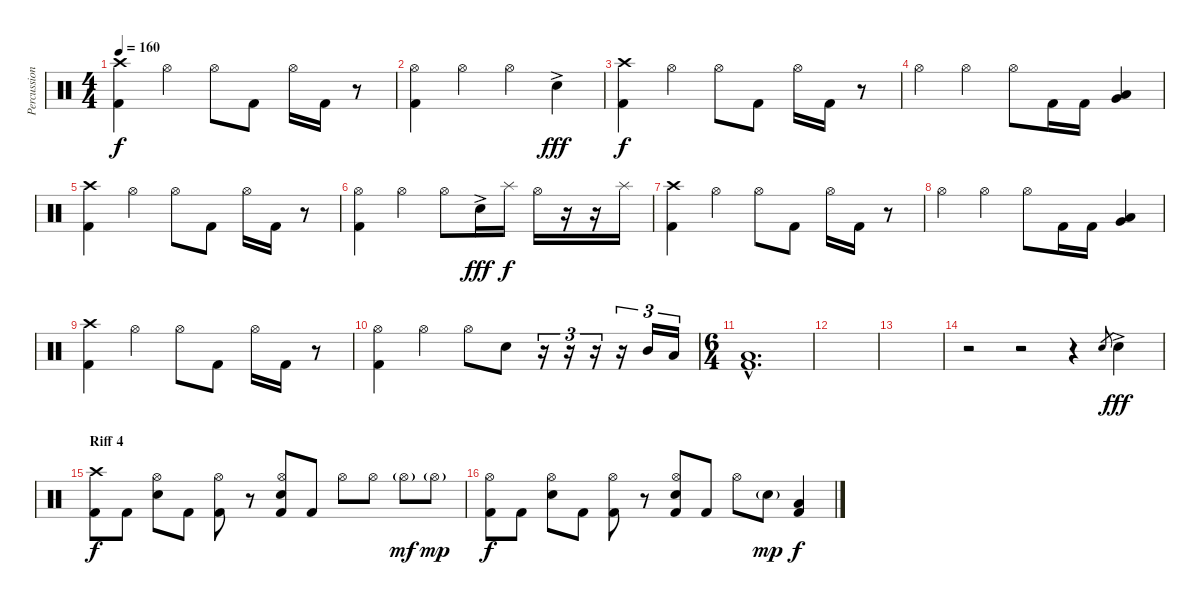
\track ("Percussion" "Percussion") {instrument percussion}
\staff {score}
\articulation defaults
\ts (4 4)
\tempo 160
\clef neutral
\ks c
("Crash high (hit)" "Kick (hit) 2").4{dy f} "Hi-Hat (open)".4 "Hi-Hat (open)".8 "Kick (hit) 2".8 "Hi-Hat (open)".16 "Kick (hit) 2".16 r.8 |
("Hi-Hat (open)" "Kick (hit) 2").4 "Hi-Hat (open)".4 "Hi-Hat (open)".4 "Electric Snare (hit)"{ac}.4{dy fff} |
("Crash high (hit)" "Kick (hit) 2").4{dy f} "Hi-Hat (open)".4 "Hi-Hat (open)".8 "Kick (hit) 2".8 "Hi-Hat (open)".16 "Kick (hit) 2".16 r.8 |
"Hi-Hat (open)".4 "Hi-Hat (open)".4 "Hi-Hat (open)".8 "Kick (hit) 2".16 "Kick (hit) 2".16 ("Very Low Tom (hit)" "Low Floor Tom (hit)").4 |
("Crash high (hit)" "Kick (hit) 2").4 "Hi-Hat (open)".4 "Hi-Hat (open)".8 "Kick (hit) 2".8 "Hi-Hat (open)".16 "Kick (hit) 2".16 r.8 |
("Hi-Hat (open)" "Kick (hit) 2").4 "Hi-Hat (open)".4 "Hi-Hat (open)".8 "Electric Snare (hit)"{ac}.16{dy fff} "Splash (hit)".16{dy f} "Hi-Hat (open)".16 r.16 r.16 "Splash (hit)".16 |
("Crash high (hit)" "Kick (hit) 2").4 "Hi-Hat (open)".4 "Hi-Hat (open)".8 "Kick (hit) 2".8 "Hi-Hat (open)".16 "Kick (hit) 2".16 r.8 |
"Hi-Hat (open)".4 "Hi-Hat (open)".4 "Hi-Hat (open)".8 "Kick (hit) 2".16 "Kick (hit) 2".16 ("Very Low Tom (hit)" "Low Floor Tom (hit)").4 |
("Crash high (hit)" "Kick (hit) 2").4 "Hi-Hat (open)".4 "Hi-Hat (open)".8 "Kick (hit) 2".8 "Hi-Hat (open)".16 "Kick (hit) 2".16 r.8 |
("Hi-Hat (open)" "Kick (hit) 2").4 "Hi-Hat (open)".4 "Hi-Hat (open)".8 "Electric Snare (hit)".8 r.16{tu (3 2)} r.16{tu (3 2)} r.16{tu (3 2)} r.16{tu (3 2)} "Mid Tom (hit)".16{tu (3 2)} "Low Tom (hit)".16{tu (3 2)} |
\ts (6 4)
("Low Floor Tom (hit)"{hac} "Kick (hit) 2"{hac}).1{d} |
|
|
r.2 r.2 r.4 "Electric Snare (hit)".8{gr} "Electric Snare (hit)"{ac}.4{dy fff} |
\section ("" "Riff 4")
("Crash high (hit)" "Kick (hit) 2").8{dy f} "Kick (hit) 2".8 ("Hi-Hat (open)" "Electric Snare (hit)").8 "Kick (hit) 2".8 ("Hi-Hat (open)" "Kick (hit) 2").8 r.8 ("Hi-Hat (open)" "Electric Snare (hit)" "Kick (hit) 2").8 "Kick (hit) 2".8 "Hi-Hat (open)".8 "Hi-Hat (open)".8 "Hi-Hat (open)"{g}.8{dy mf} "Hi-Hat (open)"{g}.8{dy mp} |
("Hi-Hat (open)" "Kick (hit) 2").8{dy f} "Kick (hit) 2".8 ("Hi-Hat (open)" "Electric Snare (hit)").8 "Kick (hit) 2".8 ("Hi-Hat (open)" "Kick (hit) 2").8 r.8 ("Hi-Hat (open)" "Electric Snare (hit)" "Kick (hit) 2").8 "Kick (hit) 2".8 "Hi-Hat (open)".8 "Electric Snare (hit)"{g}.8{dy mp} ("Low Floor Tom (hit)" "Kick (hit) 2").4{dy f}
